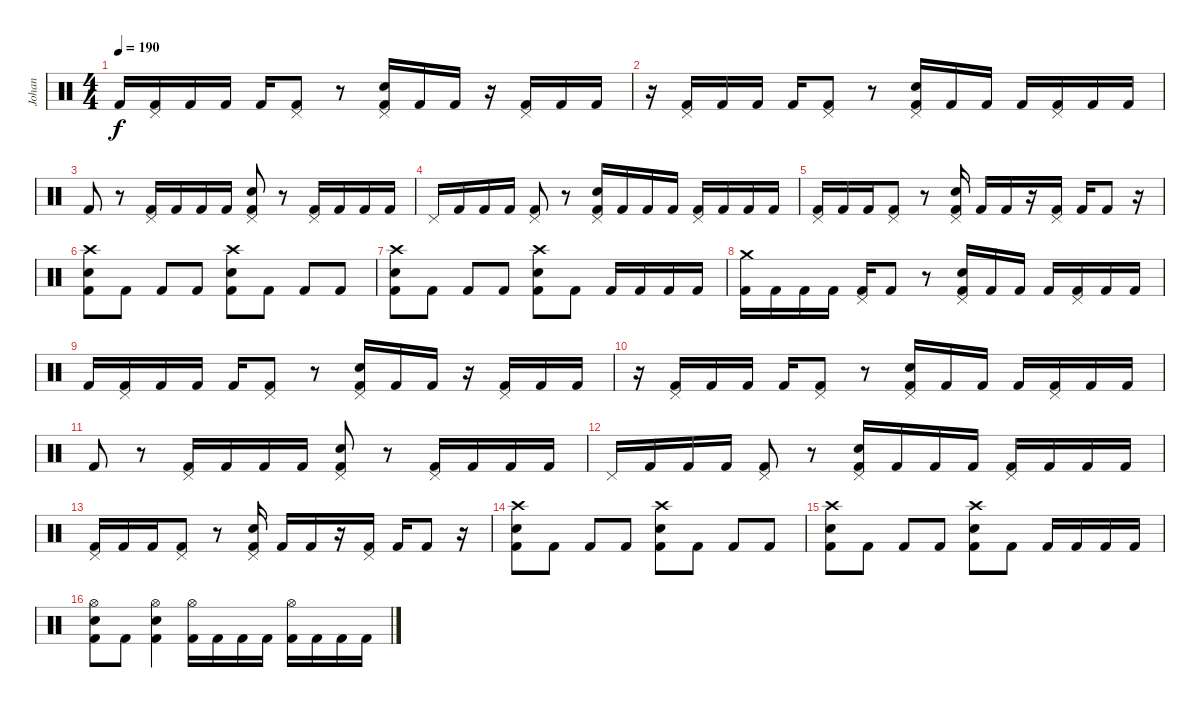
\track ("Johan" "Johan") {instrument percussion}
\staff {score}
\articulation defaults
\ts (4 4)
\tempo 190
\clef neutral
\ks c "Kick (hit) 2".16{dy f}
("Pedal Hi-Hat (hit)" "Kick (hit) 2").16 "Kick (hit) 2".16 "Kick (hit) 2".16 "Kick (hit) 2".16 ("Pedal Hi-Hat (hit)" "Kick (hit) 2").8 r.8 ("Electric Snare (hit)" "Pedal Hi-Hat (hit)" "Kick (hit) 2").16 "Kick (hit) 2".16 "Kick (hit) 2".16 r.16 ("Pedal Hi-Hat (hit)" "Kick (hit) 2").16 "Kick (hit) 2".16 "Kick (hit) 2".16 |
r.16 ("Pedal Hi-Hat (hit)" "Kick (hit) 2").16 "Kick (hit) 2".16 "Kick (hit) 2".16 "Kick (hit) 2".16 ("Pedal Hi-Hat (hit)" "Kick (hit) 2").8 r.8 ("Electric Snare (hit)" "Pedal Hi-Hat (hit)" "Kick (hit) 2").16 "Kick (hit) 2".16 "Kick (hit) 2".16 "Kick (hit) 2".16 ("Pedal Hi-Hat (hit)" "Kick (hit) 2").16 "Kick (hit) 2".16 "Kick (hit) 2".16 |
"Kick (hit) 2".8 r.8 ("Pedal Hi-Hat (hit)" "Kick (hit) 2").16 "Kick (hit) 2".16 "Kick (hit) 2".16 "Kick (hit) 2".16 ("Electric Snare (hit)" "Pedal Hi-Hat (hit)" "Kick (hit) 2").8 r.8 ("Pedal Hi-Hat (hit)" "Kick (hit) 2").16 "Kick (hit) 2".16 "Kick (hit) 2".16 "Kick (hit) 2".16 |
"Pedal Hi-Hat (hit)".16 "Kick (hit) 2".16 "Kick (hit) 2".16 "Kick (hit) 2".16 ("Pedal Hi-Hat (hit)" "Kick (hit) 2").8 r.8 ("Electric Snare (hit)" "Pedal Hi-Hat (hit)" "Kick (hit) 2").16 "Kick (hit) 2".16 "Kick (hit) 2".16 "Kick (hit) 2".16 ("Pedal Hi-Hat (hit)" "Kick (hit) 2").16 "Kick (hit) 2".16 "Kick (hit) 2".16 "Kick (hit) 2".16 |
("Pedal Hi-Hat (hit)" "Kick (hit) 2").16 "Kick (hit) 2".16 "Kick (hit) 2".16 ("Pedal Hi-Hat (hit)" "Kick (hit) 2").8 r.8 ("Electric Snare (hit)" "Pedal Hi-Hat (hit)" "Kick (hit) 2").16 "Kick (hit) 2".16 "Kick (hit) 2".16 r.16 ("Pedal Hi-Hat (hit)" "Kick (hit) 2").16 "Kick (hit) 2".16 "Kick (hit) 2".8 r.16 |
("Electric Snare (hit)" "Crash high (hit)" "Kick (hit) 2").8 "Kick (hit) 2".8 "Kick (hit) 2".8 "Kick (hit) 2".8 ("Electric Snare (hit)" "Crash high (hit)" "Kick (hit) 2").8 "Kick (hit) 2".8 "Kick (hit) 2".8 "Kick (hit) 2".8 |
("Electric Snare (hit)" "Crash high (hit)" "Kick (hit) 2").8 "Kick (hit) 2".8 "Kick (hit) 2".8 "Kick (hit) 2".8 ("Electric Snare (hit)" "Crash high (hit)" "Kick (hit) 2").8 "Kick (hit) 2".8 "Kick (hit) 2".16 "Kick (hit) 2".16 "Kick (hit) 2".16 "Kick (hit) 2".16 |
("Crash medium (hit)" "Kick (hit) 2").16 "Kick (hit) 2".16 "Kick (hit) 2".16 "Kick (hit) 2".16 ("Pedal Hi-Hat (hit)" "Kick (hit) 2").16 "Kick (hit) 2".8 r.8 ("Electric Snare (hit)" "Pedal Hi-Hat (hit)" "Kick (hit) 2").16 "Kick (hit) 2".16 "Kick (hit) 2".16 "Kick (hit) 2".16 ("Pedal Hi-Hat (hit)" "Kick (hit) 2").16 "Kick (hit) 2".16 "Kick (hit) 2".16 |
"Kick (hit) 2".16 ("Pedal Hi-Hat (hit)" "Kick (hit) 2").16 "Kick (hit) 2".16 "Kick (hit) 2".16 "Kick (hit) 2".16 ("Pedal Hi-Hat (hit)" "Kick (hit) 2").8 r.8 ("Electric Snare (hit)" "Pedal Hi-Hat (hit)" "Kick (hit) 2").16 "Kick (hit) 2".16 "Kick (hit) 2".16 r.16 ("Pedal Hi-Hat (hit)" "Kick (hit) 2").16 "Kick (hit) 2".16 "Kick (hit) 2".16 |
r.16 ("Pedal Hi-Hat (hit)" "Kick (hit) 2").16 "Kick (hit) 2".16 "Kick (hit) 2".16 "Kick (hit) 2".16 ("Pedal Hi-Hat (hit)" "Kick (hit) 2").8 r.8 ("Electric Snare (hit)" "Pedal Hi-Hat (hit)" "Kick (hit) 2").16 "Kick (hit) 2".16 "Kick (hit) 2".16 "Kick (hit) 2".16 ("Pedal Hi-Hat (hit)" "Kick (hit) 2").16 "Kick (hit) 2".16 "Kick (hit) 2".16 |
"Kick (hit) 2".8 r.8 ("Pedal Hi-Hat (hit)" "Kick (hit) 2").16 "Kick (hit) 2".16 "Kick (hit) 2".16 "Kick (hit) 2".16 ("Electric Snare (hit)" "Pedal Hi-Hat (hit)" "Kick (hit) 2").8 r.8 ("Pedal Hi-Hat (hit)" "Kick (hit) 2").16 "Kick (hit) 2".16 "Kick (hit) 2".16 "Kick (hit) 2".16 |
"Pedal Hi-Hat (hit)".16 "Kick (hit) 2".16 "Kick (hit) 2".16 "Kick (hit) 2".16 ("Pedal Hi-Hat (hit)" "Kick (hit) 2").8 r.8 ("Electric Snare (hit)" "Pedal Hi-Hat (hit)" "Kick (hit) 2").16 "Kick (hit) 2".16 "Kick (hit) 2".16 "Kick (hit) 2".16 ("Pedal Hi-Hat (hit)" "Kick (hit) 2").16 "Kick (hit) 2".16 "Kick (hit) 2".16 "Kick (hit) 2".16 |
("Pedal Hi-Hat (hit)" "Kick (hit) 2").16 "Kick (hit) 2".16 "Kick (hit) 2".16 ("Pedal Hi-Hat (hit)" "Kick (hit) 2").8 r.8 ("Electric Snare (hit)" "Pedal Hi-Hat (hit)" "Kick (hit) 2").16 "Kick (hit) 2".16 "Kick (hit) 2".16 r.16 ("Pedal Hi-Hat (hit)" "Kick (hit) 2").16 "Kick (hit) 2".16 "Kick (hit) 2".8 r.16 |
("Electric Snare (hit)" "Crash high (hit)" "Kick (hit) 2").8 "Kick (hit) 2".8 "Kick (hit) 2".8 "Kick (hit) 2".8 ("Electric Snare (hit)" "Crash high (hit)" "Kick (hit) 2").8 "Kick (hit) 2".8 "Kick (hit) 2".8 "Kick (hit) 2".8 |
("Electric Snare (hit)" "Crash high (hit)" "Kick (hit) 2").8 "Kick (hit) 2".8 "Kick (hit) 2".8 "Kick (hit) 2".8 ("Electric Snare (hit)" "Crash high (hit)" "Kick (hit) 2").8 "Kick (hit) 2".8 "Kick (hit) 2".16 "Kick (hit) 2".16 "Kick (hit) 2".16 "Kick (hit) 2".16 |
("Electric Snare (hit)" "Hi-Hat (open)" "Kick (hit) 2").8 "Kick (hit) 2".8 ("Electric Snare (hit)" "Hi-Hat (open)" "Kick (hit) 2").4 ("Hi-Hat (open)" "Kick (hit) 2").16 "Kick (hit) 2".16 "Kick (hit) 2".16 "Kick (hit) 2".16 ("Hi-Hat (open)" "Kick (hit) 2").16 "Kick (hit) 2".16 "Kick (hit) 2".16 "Kick (hit) 2".16
